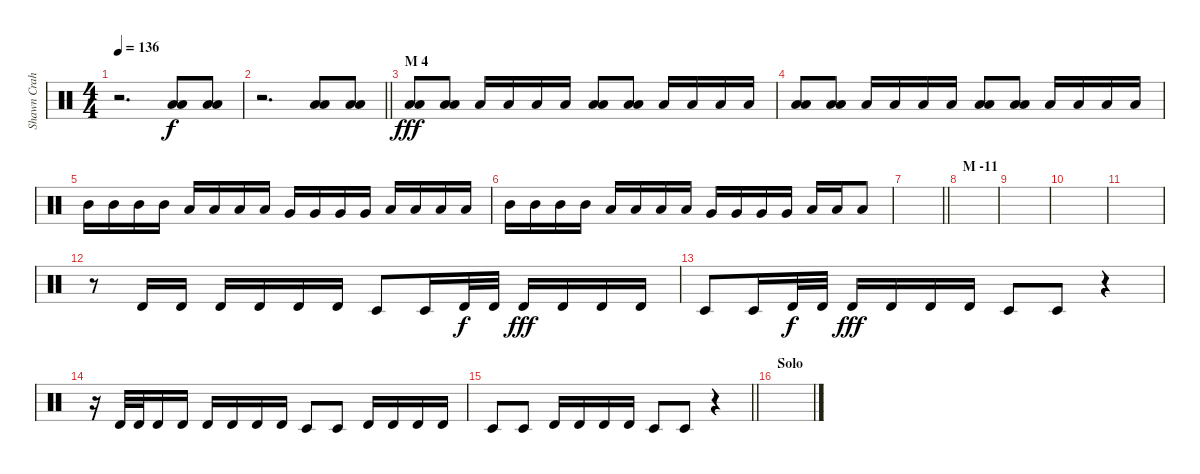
\track ("Shawn Crahan" "Shawn Crah") {instrument percussion}
\staff {score}
\articulation defaults
\ts (4 4)
\tempo 136
\clef neutral
\ks c
r.2{d dy f} ("Low Floor Tom (hit)" "Low Floor Tom (hit)").8 ("Low Floor Tom (hit)" "Low Floor Tom (hit)").8 |
\barLineRight lightlight
r.2{d} ("Low Floor Tom (hit)" "Low Floor Tom (hit)").8 ("Low Floor Tom (hit)" "Low Floor Tom (hit)").8 |
\section ("" "M 4")
("Low Floor Tom (hit)" "Low Floor Tom (hit)").8{dy fff} ("Low Floor Tom (hit)" "Low Floor Tom (hit)").8 "Low Floor Tom (hit)".16 "Low Floor Tom (hit)".16 "Low Floor Tom (hit)".16 "Low Floor Tom (hit)".16 ("Low Floor Tom (hit)" "Low Floor Tom (hit)").8 ("Low Floor Tom (hit)" "Low Floor Tom (hit)").8 "Low Floor Tom (hit)".16 "Low Floor Tom (hit)".16 "Low Floor Tom (hit)".16 "Low Floor Tom (hit)".16 |
("Low Floor Tom (hit)" "Low Floor Tom (hit)").8 ("Low Floor Tom (hit)" "Low Floor Tom (hit)").8 "Low Floor Tom (hit)".16 "Low Floor Tom (hit)".16 "Low Floor Tom (hit)".16 "Low Floor Tom (hit)".16 ("Low Floor Tom (hit)" "Low Floor Tom (hit)").8 ("Low Floor Tom (hit)" "Low Floor Tom (hit)").8 "Low Floor Tom (hit)".16 "Low Floor Tom (hit)".16 "Low Floor Tom (hit)".16 "Low Floor Tom (hit)".16 |
"Mid Tom (hit)".16 "Mid Tom (hit)".16 "Mid Tom (hit)".16 "Mid Tom (hit)".16 "Low Tom (hit)".16 "Low Tom (hit)".16 "Low Tom (hit)".16 "Low Tom (hit)".16 "Very Low Tom (hit)".16 "Very Low Tom (hit)".16 "Very Low Tom (hit)".16 "Very Low Tom (hit)".16 "Low Floor Tom (hit)".16 "Low Floor Tom (hit)".16 "Low Floor Tom (hit)".16 "Low Floor Tom (hit)".16 |
"Mid Tom (hit)".16 "Mid Tom (hit)".16 "Mid Tom (hit)".16 "Mid Tom (hit)".16 "Low Tom (hit)".16 "Low Tom (hit)".16 "Low Tom (hit)".16 "Low Tom (hit)".16 "Very Low Tom (hit)".16 "Very Low Tom (hit)".16 "Very Low Tom (hit)".16 "Very Low Tom (hit)".16 "Low Floor Tom (hit)".16 "Low Floor Tom (hit)".16 "Low Floor Tom (hit)".8 |
\barLineRight lightlight
|
\section ("" "M -11")
|
|
|
|
r.8 "Timbale high (hit)".16 "Timbale high (hit)".16 "Timbale high (hit)".16 "Timbale high (hit)".16 "Timbale high (hit)".16 "Timbale high (hit)".16 "Timbale low (hit)".8 "Timbale low (hit)".16 "Timbale high (hit)".32{dy f} "Timbale high (hit)".32 "Timbale high (hit)".16{dy fff} "Timbale high (hit)".16 "Timbale high (hit)".16 "Timbale high (hit)".16 |
"Timbale low (hit)".8 "Timbale low (hit)".16 "Timbale high (hit)".32{dy f} "Timbale high (hit)".32 "Timbale high (hit)".16{dy fff} "Timbale high (hit)".16 "Timbale high (hit)".16 "Timbale high (hit)".16 "Timbale low (hit)".8 "Timbale low (hit)".8 r.4 |
r.16 "Timbale high (hit)".32 "Timbale high (hit)".32 "Timbale high (hit)".16 "Timbale high (hit)".16 "Timbale high (hit)".16 "Timbale high (hit)".16 "Timbale high (hit)".16 "Timbale high (hit)".16 "Timbale low (hit)".8 "Timbale low (hit)".8 "Timbale high (hit)".16 "Timbale high (hit)".16 "Timbale high (hit)".16 "Timbale high (hit)".16 |
\barLineRight lightlight "Timbale low (hit)".8 "Timbale low (hit)".8 "Timbale high (hit)".16 "Timbale high (hit)".16 "Timbale high (hit)".16 "Timbale high (hit)".16 "Timbale low (hit)".8 "Timbale low (hit)".8
r.4 |
\section ("" "Solo")
